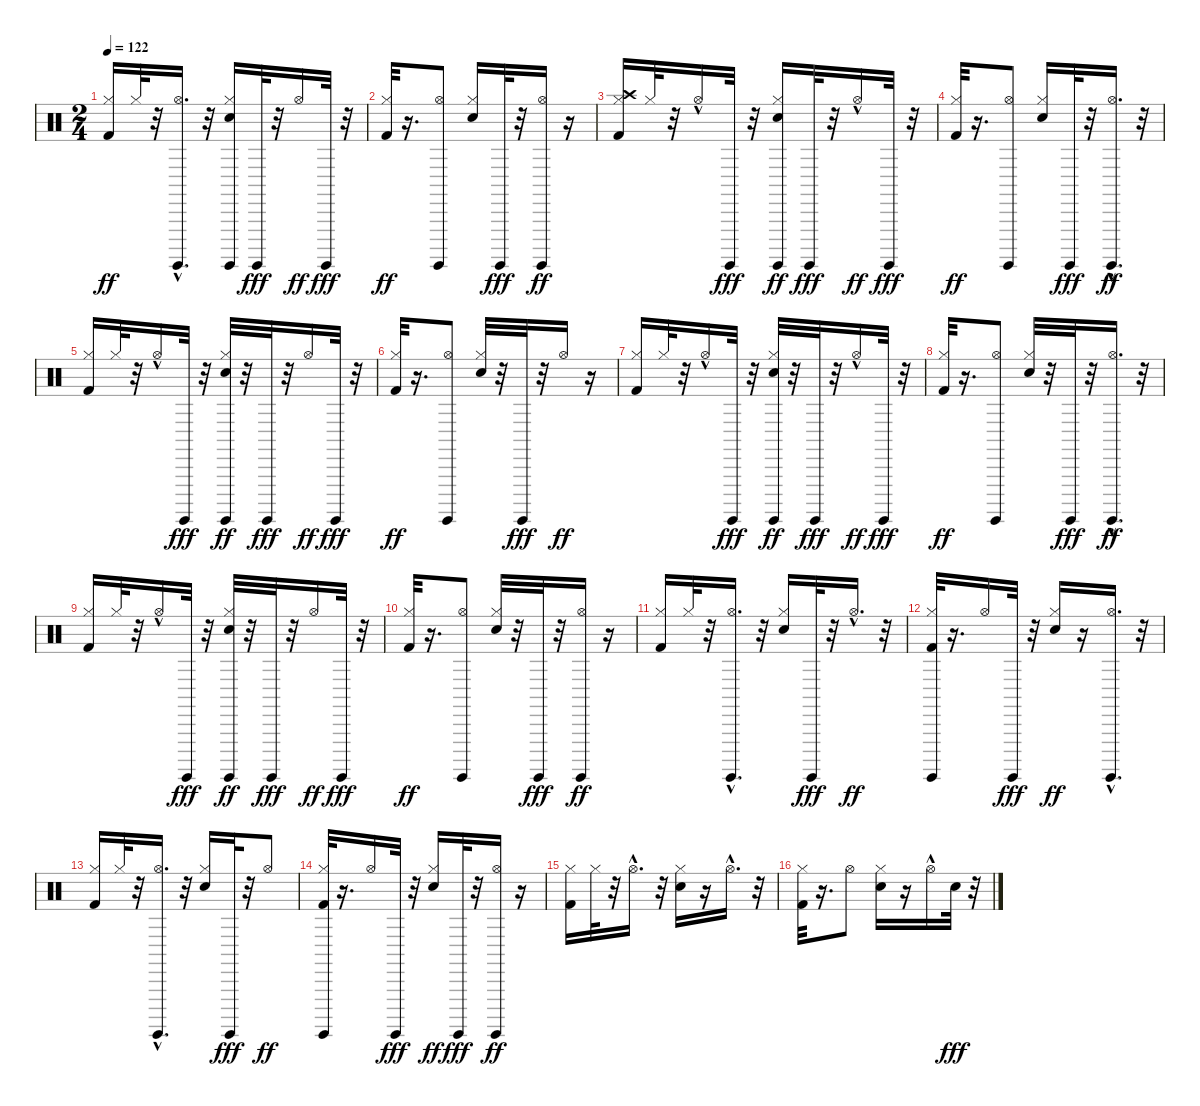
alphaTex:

\track "" {instrument percussion}
\staff {score}
\articulation defaults
\ts (2 4)
\tempo 122
\clef neutral
\ks c
("Kick (hit) 2" "Hi-Hat (closed)").16{dy ff} "Hi-Hat (closed)".32 r.32 ("Surdo (hit)" "Hi-Hat (open)"{hac}).16{d} r.32 ("Surdo (hit)" "Snare (hit) 2" "Hi-Hat (closed)").16 "Surdo (hit)".32{dy fff} r.32 "Hi-Hat (open)".16{dy ff} "Surdo (hit)".32{dy fff} r.32 |
("Kick (hit) 2" "Hi-Hat (closed)").32{dy ff} r.16{d} ("Surdo (hit)" "Hi-Hat (open)").8 ("Snare (hit) 2" "Hi-Hat (closed)").16 "Surdo (hit)".32{dy fff} r.32 ("Surdo (hit)" "Hi-Hat (open)").16{dy ff} r.16 |
("Kick (hit) 2" "Crash high (hit)" "Hi-Hat (closed)").16 "Hi-Hat (closed)".32 r.32 "Hi-Hat (open)"{hac}.16 "Surdo (hit)".32{dy fff} r.32 ("Surdo (hit)" "Snare (hit) 2" "Hi-Hat (closed)").16{dy ff} "Surdo (hit)".32{dy fff} r.32 "Hi-Hat (open)"{hac}.16{dy ff} "Surdo (hit)".32{dy fff} r.32 |
("Kick (hit) 2" "Hi-Hat (closed)").32{dy ff} r.16{d} ("Surdo (hit)" "Hi-Hat (open)").8 ("Snare (hit) 2" "Hi-Hat (closed)").16 "Surdo (hit)".32{dy fff} r.32 ("Surdo (hit)" "Hi-Hat (open)"{hac}).16{d dy ff} r.32 |
("Kick (hit) 2" "Hi-Hat (closed)").16 "Hi-Hat (closed)".32 r.32 "Hi-Hat (open)"{hac}.16 "Surdo (hit)".32{dy fff} r.32 ("Surdo (hit)" "Snare (hit) 2" "Hi-Hat (closed)").32{dy ff} r.32 "Surdo (hit)".32{dy fff} r.32 "Hi-Hat (open)".16{dy ff} "Surdo (hit)".32{dy fff} r.32 |
("Kick (hit) 2" "Hi-Hat (closed)").32{dy ff} r.16{d} ("Surdo (hit)" "Hi-Hat (open)").8 ("Snare (hit) 2" "Hi-Hat (closed)").32 r.32 "Surdo (hit)".32{dy fff} r.32 "Hi-Hat (open)".16{dy ff} r.16 |
("Kick (hit) 2" "Hi-Hat (closed)").16 "Hi-Hat (closed)".32 r.32 "Hi-Hat (open)"{hac}.16 "Surdo (hit)".32{dy fff} r.32 ("Snare (hit) 2" "Surdo (hit)" "Hi-Hat (closed)").32{dy ff} r.32 "Surdo (hit)".32{dy fff} r.32 "Hi-Hat (open)"{hac}.16{dy ff} "Surdo (hit)".32{dy fff} r.32 |
("Kick (hit) 2" "Hi-Hat (closed)").32{dy ff} r.16{d} ("Surdo (hit)" "Hi-Hat (open)").8 ("Snare (hit) 2" "Hi-Hat (closed)").32 r.32 "Surdo (hit)".32{dy fff} r.32 ("Surdo (hit)" "Hi-Hat (open)"{hac}).16{d dy ff} r.32 |
("Kick (hit) 2" "Hi-Hat (closed)").16 "Hi-Hat (closed)".32 r.32 "Hi-Hat (open)"{hac}.16 "Surdo (hit)".32{dy fff} r.32 ("Surdo (hit)" "Snare (hit) 2" "Hi-Hat (closed)").32{dy ff} r.32 "Surdo (hit)".32{dy fff} r.32 "Hi-Hat (open)".16{dy ff} "Surdo (hit)".32{dy fff} r.32 |
("Kick (hit) 2" "Hi-Hat (closed)").32{dy ff} r.16{d} ("Surdo (hit)" "Hi-Hat (open)").8 ("Snare (hit) 2" "Hi-Hat (closed)").32 r.32 "Surdo (hit)".32{dy fff} r.32 ("Surdo (hit)" "Hi-Hat (open)").16{dy ff} r.16 |
("Kick (hit) 2" "Hi-Hat (closed)").16 "Hi-Hat (closed)".32 r.32 ("Surdo (hit)" "Hi-Hat (open)"{hac}).16{d} r.32 ("Snare (hit) 2" "Hi-Hat (closed)").16 "Surdo (hit)".32{dy fff} r.32 "Hi-Hat (open)"{hac}.16{d dy ff} r.32 |
("Surdo (hit)" "Kick (hit) 2" "Hi-Hat (closed)").32 r.16{d} "Hi-Hat (open)".16 "Surdo (hit)".32{dy fff} r.32 ("Snare (hit) 2" "Hi-Hat (closed)").16{dy ff} r.16 ("Surdo (hit)" "Hi-Hat (open)"{hac}).16{d} r.32 |
("Kick (hit) 2" "Hi-Hat (closed)").16 "Hi-Hat (closed)".32 r.32 ("Surdo (hit)" "Hi-Hat (open)"{hac}).16{d} r.32 ("Snare (hit) 2" "Hi-Hat (closed)").16 "Surdo (hit)".32{dy fff} r.32 "Hi-Hat (open)".8{dy ff} |
("Surdo (hit)" "Kick (hit) 2" "Hi-Hat (closed)").32 r.16{d} "Hi-Hat (open)".16 "Surdo (hit)".32{dy fff} r.32 ("Snare (hit) 2" "Hi-Hat (closed)").16{dy ff} "Surdo (hit)".32{dy fff} r.32 ("Surdo (hit)" "Hi-Hat (open)").16{dy ff} r.16 |
("Kick (hit) 2" "Hi-Hat (closed)").16 "Hi-Hat (closed)".32 r.32 "Hi-Hat (open)"{hac}.16{d} r.32 ("Snare (hit) 2" "Hi-Hat (closed)").16 r.16 "Hi-Hat (open)"{hac}.16{d} r.32 |
("Kick (hit) 2" "Hi-Hat (closed)").32 r.16{d} "Hi-Hat (open)".8 ("Snare (hit) 2" "Hi-Hat (closed)").16 r.16 "Hi-Hat (open)"{hac}.16 "Hand Clap (hit)".32{dy fff} r.32
